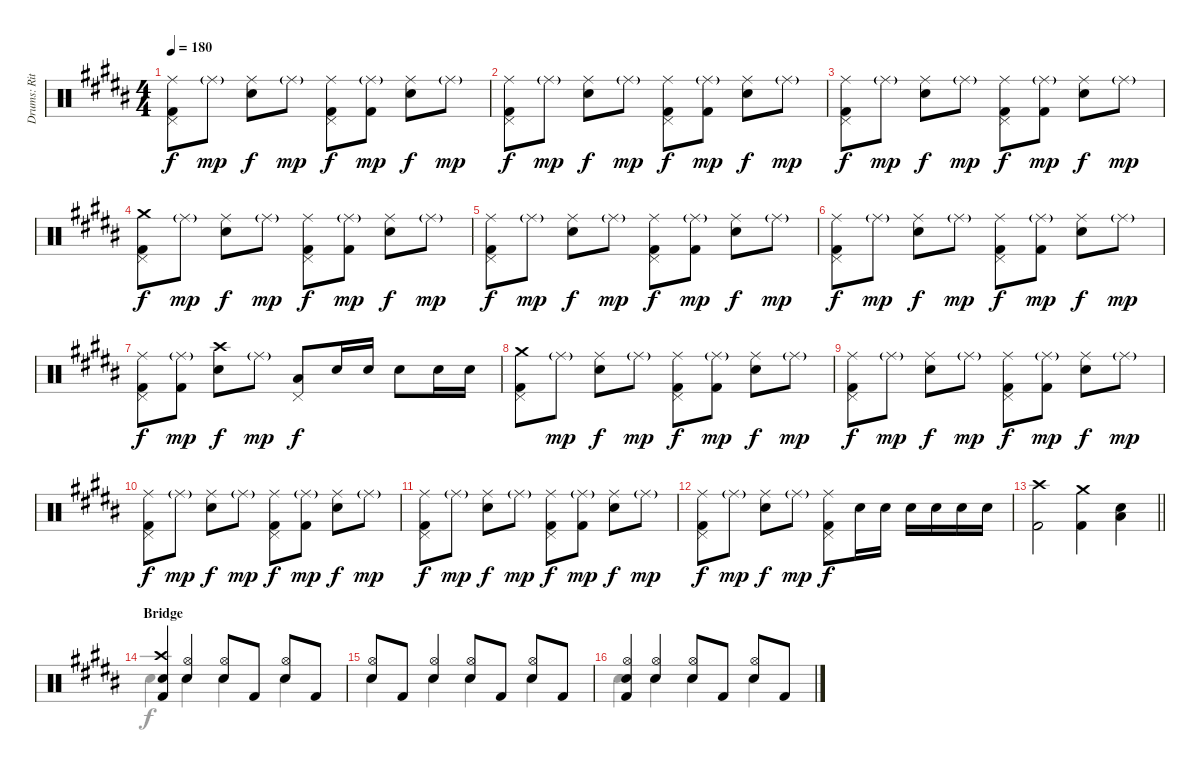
\track ("Drums: Ritsu " "Drums: Rit") {instrument percussion}
\staff {score}
\articulation defaults
\voice
\ts (4 4)
\tempo 180
\clef neutral
\ks b
("Ride (middle)" "Pedal Hi-Hat (hit)" "Kick (hit) 2").8{dy f} "Ride (middle)"{g}.8{dy mp} ("Ride (middle)" "Electric Snare (hit)").8{dy f} "Ride (middle)"{g}.8{dy mp} ("Ride (middle)" "Pedal Hi-Hat (hit)" "Kick (hit) 2").8{dy f} ("Ride (middle)"{g} "Kick (hit) 2").8{dy mp} ("Ride (middle)" "Electric Snare (hit)").8{dy f} "Ride (middle)"{g}.8{dy mp} |
("Ride (middle)" "Pedal Hi-Hat (hit)" "Kick (hit) 2").8{dy f} "Ride (middle)"{g}.8{dy mp} ("Ride (middle)" "Electric Snare (hit)").8{dy f} "Ride (middle)"{g}.8{dy mp} ("Ride (middle)" "Pedal Hi-Hat (hit)" "Kick (hit) 2").8{dy f} ("Ride (middle)"{g} "Kick (hit) 2").8{dy mp} ("Ride (middle)" "Electric Snare (hit)").8{dy f} "Ride (middle)"{g}.8{dy mp} |
("Ride (middle)" "Pedal Hi-Hat (hit)" "Kick (hit) 2").8{dy f} "Ride (middle)"{g}.8{dy mp} ("Ride (middle)" "Electric Snare (hit)").8{dy f} "Ride (middle)"{g}.8{dy mp} ("Ride (middle)" "Pedal Hi-Hat (hit)" "Kick (hit) 2").8{dy f} ("Ride (middle)"{g} "Kick (hit) 2").8{dy mp} ("Ride (middle)" "Electric Snare (hit)").8{dy f} "Ride (middle)"{g}.8{dy mp} |
("Crash medium (hit)" "Pedal Hi-Hat (hit)" "Kick (hit) 2").8{dy f} "Ride (middle)"{g}.8{dy mp} ("Ride (middle)" "Electric Snare (hit)").8{dy f} "Ride (middle)"{g}.8{dy mp} ("Ride (middle)" "Pedal Hi-Hat (hit)" "Kick (hit) 2").8{dy f} ("Ride (middle)"{g} "Kick (hit) 2").8{dy mp} ("Ride (middle)" "Electric Snare (hit)").8{dy f} "Ride (middle)"{g}.8{dy mp} |
("Ride (middle)" "Pedal Hi-Hat (hit)" "Kick (hit) 2").8{dy f} "Ride (middle)"{g}.8{dy mp} ("Ride (middle)" "Electric Snare (hit)").8{dy f} "Ride (middle)"{g}.8{dy mp} ("Ride (middle)" "Pedal Hi-Hat (hit)" "Kick (hit) 2").8{dy f} ("Ride (middle)"{g} "Kick (hit) 2").8{dy mp} ("Ride (middle)" "Electric Snare (hit)").8{dy f} "Ride (middle)"{g}.8{dy mp} |
("Ride (middle)" "Pedal Hi-Hat (hit)" "Kick (hit) 2").8{dy f} "Ride (middle)"{g}.8{dy mp} ("Ride (middle)" "Electric Snare (hit)").8{dy f} "Ride (middle)"{g}.8{dy mp} ("Ride (middle)" "Pedal Hi-Hat (hit)" "Kick (hit) 2").8{dy f} ("Ride (middle)"{g} "Kick (hit) 2").8{dy mp} ("Ride (middle)" "Electric Snare (hit)").8{dy f} "Ride (middle)"{g}.8{dy mp} |
("Ride (middle)" "Pedal Hi-Hat (hit)" "Kick (hit) 2").8{dy f} ("Ride (middle)"{g} "Kick (hit) 2").8{dy mp} ("Crash high (hit)" "Electric Snare (hit)").8{dy f} "Ride (middle)"{g}.8{dy mp} ("Pedal Hi-Hat (hit)" "Low Tom (hit)").8{dy f} "Electric Snare (hit)".16 "Electric Snare (hit)".16 "Electric Snare (hit)".8 "Electric Snare (hit)".16 "Electric Snare (hit)".16 |
("Crash medium (hit)" "Pedal Hi-Hat (hit)" "Kick (hit) 2").8 "Ride (middle)"{g}.8{dy mp} ("Ride (middle)" "Electric Snare (hit)").8{dy f} "Ride (middle)"{g}.8{dy mp} ("Ride (middle)" "Pedal Hi-Hat (hit)" "Kick (hit) 2").8{dy f} ("Ride (middle)"{g} "Kick (hit) 2").8{dy mp} ("Ride (middle)" "Electric Snare (hit)").8{dy f} "Ride (middle)"{g}.8{dy mp} |
("Ride (middle)" "Pedal Hi-Hat (hit)" "Kick (hit) 2").8{dy f} "Ride (middle)"{g}.8{dy mp} ("Ride (middle)" "Electric Snare (hit)").8{dy f} "Ride (middle)"{g}.8{dy mp} ("Ride (middle)" "Pedal Hi-Hat (hit)" "Kick (hit) 2").8{dy f} ("Ride (middle)"{g} "Kick (hit) 2").8{dy mp} ("Ride (middle)" "Electric Snare (hit)").8{dy f} "Ride (middle)"{g}.8{dy mp} |
("Ride (middle)" "Pedal Hi-Hat (hit)" "Kick (hit) 2").8{dy f} "Ride (middle)"{g}.8{dy mp} ("Ride (middle)" "Electric Snare (hit)").8{dy f} "Ride (middle)"{g}.8{dy mp} ("Ride (middle)" "Pedal Hi-Hat (hit)" "Kick (hit) 2").8{dy f} ("Ride (middle)"{g} "Kick (hit) 2").8{dy mp} ("Ride (middle)" "Electric Snare (hit)").8{dy f} "Ride (middle)"{g}.8{dy mp} |
("Ride (middle)" "Pedal Hi-Hat (hit)" "Kick (hit) 2").8{dy f} "Ride (middle)"{g}.8{dy mp} ("Ride (middle)" "Electric Snare (hit)").8{dy f} "Ride (middle)"{g}.8{dy mp} ("Ride (middle)" "Pedal Hi-Hat (hit)" "Kick (hit) 2").8{dy f} ("Ride (middle)"{g} "Kick (hit) 2").8{dy mp} ("Ride (middle)" "Electric Snare (hit)").8{dy f} "Ride (middle)"{g}.8{dy mp} |
("Ride (middle)" "Pedal Hi-Hat (hit)" "Kick (hit) 2").8{dy f} "Ride (middle)"{g}.8{dy mp} ("Ride (middle)" "Electric Snare (hit)").8{dy f} "Ride (middle)"{g}.8{dy mp} ("Ride (middle)" "Pedal Hi-Hat (hit)" "Kick (hit) 2").8{dy f} "Electric Snare (hit)".16 "Electric Snare (hit)".16 "Electric Snare (hit)".16 "Electric Snare (hit)".16 "Electric Snare (hit)".16 "Electric Snare (hit)".16 |
\barLineRight lightlight
("Crash high (hit)" "Kick (hit) 2").2 ("Crash medium (hit)" "Kick (hit) 2").4 ("Electric Snare (hit)" "Low Floor Tom (hit)").4 |
\section ("" "Bridge")
("Crash high (hit)" "Electric Snare (hit)" "Kick (hit) 2").4 ("Hi-Hat (open)" "Electric Snare (hit)").4 ("Hi-Hat (open)" "Electric Snare (hit)").8 "Kick (hit) 2".8 ("Hi-Hat (open)" "Electric Snare (hit)").8 "Kick (hit) 2".8 |
("Hi-Hat (open)" "Electric Snare (hit)").8 "Kick (hit) 2".8 ("Hi-Hat (open)" "Electric Snare (hit)").4 ("Hi-Hat (open)" "Electric Snare (hit)").8 "Kick (hit) 2".8 ("Hi-Hat (open)" "Electric Snare (hit)").8 "Kick (hit) 2".8 |
("Hi-Hat (open)" "Electric Snare (hit)" "Kick (hit) 2").4 ("Hi-Hat (open)" "Electric Snare (hit)").4 ("Hi-Hat (open)" "Electric Snare (hit)").8 "Kick (hit) 2".8 ("Hi-Hat (open)" "Electric Snare (hit)").8 "Kick (hit) 2".8
\voice
\clef neutral
\ottava regular
\simile none
\ks b
|
|
|
|
|
|
|
|
|
|
|
|
\barLineRight lightlight
|
"Hand Clap (hit)".4 "Hand Clap (hit)".4 "Hand Clap (hit)".4 "Hand Clap (hit)".4 |
"Hand Clap (hit)".4 "Hand Clap (hit)".4 "Hand Clap (hit)".4 "Hand Clap (hit)".4 |
"Hand Clap (hit)".4 "Hand Clap (hit)".4 "Hand Clap (hit)".4 "Hand Clap (hit)".4
